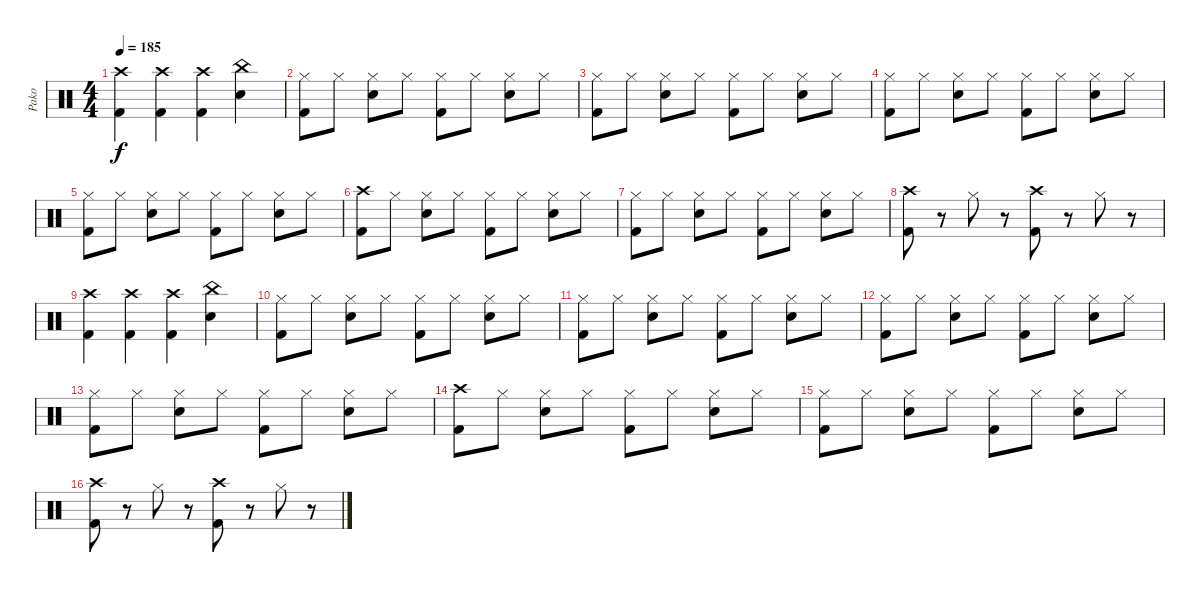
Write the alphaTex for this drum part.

\track ("Pako" "Pako") {instrument percussion}
\staff {score}
\articulation defaults
\ts (4 4)
\tempo 185
\clef neutral
\ks c
("Crash high (hit)" "Kick (hit) 2").4{dy f} ("Crash high (hit)" "Kick (hit) 2").4 ("Crash high (hit)" "Kick (hit) 2").4 ("China (hit)" "Snare (hit) 2").4 |
("Hi-Hat (closed)" "Kick (hit) 2").8 "Hi-Hat (closed)".8 ("Hi-Hat (closed)" "Snare (hit) 2").8 "Hi-Hat (closed)".8 ("Hi-Hat (closed)" "Kick (hit) 2").8 "Hi-Hat (closed)".8 ("Hi-Hat (closed)" "Snare (hit) 2").8 "Hi-Hat (closed)".8 |
("Hi-Hat (closed)" "Kick (hit) 2").8 "Hi-Hat (closed)".8 ("Hi-Hat (closed)" "Snare (hit) 2").8 "Hi-Hat (closed)".8 ("Hi-Hat (closed)" "Kick (hit) 2").8 "Hi-Hat (closed)".8 ("Hi-Hat (closed)" "Snare (hit) 2").8 "Hi-Hat (closed)".8 |
("Hi-Hat (closed)" "Kick (hit) 2").8 "Hi-Hat (closed)".8 ("Hi-Hat (closed)" "Snare (hit) 2").8 "Hi-Hat (closed)".8 ("Hi-Hat (closed)" "Kick (hit) 2").8 "Hi-Hat (closed)".8 ("Hi-Hat (closed)" "Snare (hit) 2").8 "Hi-Hat (closed)".8 |
("Hi-Hat (closed)" "Kick (hit) 2").8 "Hi-Hat (closed)".8 ("Hi-Hat (closed)" "Snare (hit) 2").8 "Hi-Hat (closed)".8 ("Hi-Hat (closed)" "Kick (hit) 2").8 "Hi-Hat (closed)".8 ("Hi-Hat (closed)" "Snare (hit) 2").8 "Hi-Hat (closed)".8 |
("Crash high (hit)" "Kick (hit) 2").8 "Hi-Hat (closed)".8 ("Hi-Hat (closed)" "Snare (hit) 2").8 "Hi-Hat (closed)".8 ("Hi-Hat (closed)" "Kick (hit) 2").8 "Hi-Hat (closed)".8 ("Hi-Hat (closed)" "Snare (hit) 2").8 "Hi-Hat (closed)".8 |
("Hi-Hat (closed)" "Kick (hit) 2").8 "Hi-Hat (closed)".8 ("Hi-Hat (closed)" "Snare (hit) 2").8 "Hi-Hat (closed)".8 ("Hi-Hat (closed)" "Kick (hit) 2").8 "Hi-Hat (closed)".8 ("Hi-Hat (closed)" "Snare (hit) 2").8 "Hi-Hat (closed)".8 |
("Crash high (hit)" "Kick (hit) 2").8 r.8 "Hi-Hat (closed)".8 r.8 ("Crash high (hit)" "Kick (hit) 2").8 r.8 "Hi-Hat (closed)".8 r.8 |
("Crash high (hit)" "Kick (hit) 2").4 ("Crash high (hit)" "Kick (hit) 2").4 ("Crash high (hit)" "Kick (hit) 2").4 ("China (hit)" "Snare (hit) 2").4 |
("Hi-Hat (closed)" "Kick (hit) 2").8 "Hi-Hat (closed)".8 ("Hi-Hat (closed)" "Snare (hit) 2").8 "Hi-Hat (closed)".8 ("Hi-Hat (closed)" "Kick (hit) 2").8 "Hi-Hat (closed)".8 ("Hi-Hat (closed)" "Snare (hit) 2").8 "Hi-Hat (closed)".8 |
("Hi-Hat (closed)" "Kick (hit) 2").8 "Hi-Hat (closed)".8 ("Hi-Hat (closed)" "Snare (hit) 2").8 "Hi-Hat (closed)".8 ("Hi-Hat (closed)" "Kick (hit) 2").8 "Hi-Hat (closed)".8 ("Hi-Hat (closed)" "Snare (hit) 2").8 "Hi-Hat (closed)".8 |
("Hi-Hat (closed)" "Kick (hit) 2").8 "Hi-Hat (closed)".8 ("Hi-Hat (closed)" "Snare (hit) 2").8 "Hi-Hat (closed)".8 ("Hi-Hat (closed)" "Kick (hit) 2").8 "Hi-Hat (closed)".8 ("Hi-Hat (closed)" "Snare (hit) 2").8 "Hi-Hat (closed)".8 |
("Hi-Hat (closed)" "Kick (hit) 2").8 "Hi-Hat (closed)".8 ("Hi-Hat (closed)" "Snare (hit) 2").8 "Hi-Hat (closed)".8 ("Hi-Hat (closed)" "Kick (hit) 2").8 "Hi-Hat (closed)".8 ("Hi-Hat (closed)" "Snare (hit) 2").8 "Hi-Hat (closed)".8 |
("Crash high (hit)" "Kick (hit) 2").8 "Hi-Hat (closed)".8 ("Hi-Hat (closed)" "Snare (hit) 2").8 "Hi-Hat (closed)".8 ("Hi-Hat (closed)" "Kick (hit) 2").8 "Hi-Hat (closed)".8 ("Hi-Hat (closed)" "Snare (hit) 2").8 "Hi-Hat (closed)".8 |
("Hi-Hat (closed)" "Kick (hit) 2").8 "Hi-Hat (closed)".8 ("Hi-Hat (closed)" "Snare (hit) 2").8 "Hi-Hat (closed)".8 ("Hi-Hat (closed)" "Kick (hit) 2").8 "Hi-Hat (closed)".8 ("Hi-Hat (closed)" "Snare (hit) 2").8 "Hi-Hat (closed)".8 |
("Crash high (hit)" "Kick (hit) 2").8 r.8 "Hi-Hat (closed)".8 r.8 ("Crash high (hit)" "Kick (hit) 2").8 r.8 "Hi-Hat (closed)".8 r.8
